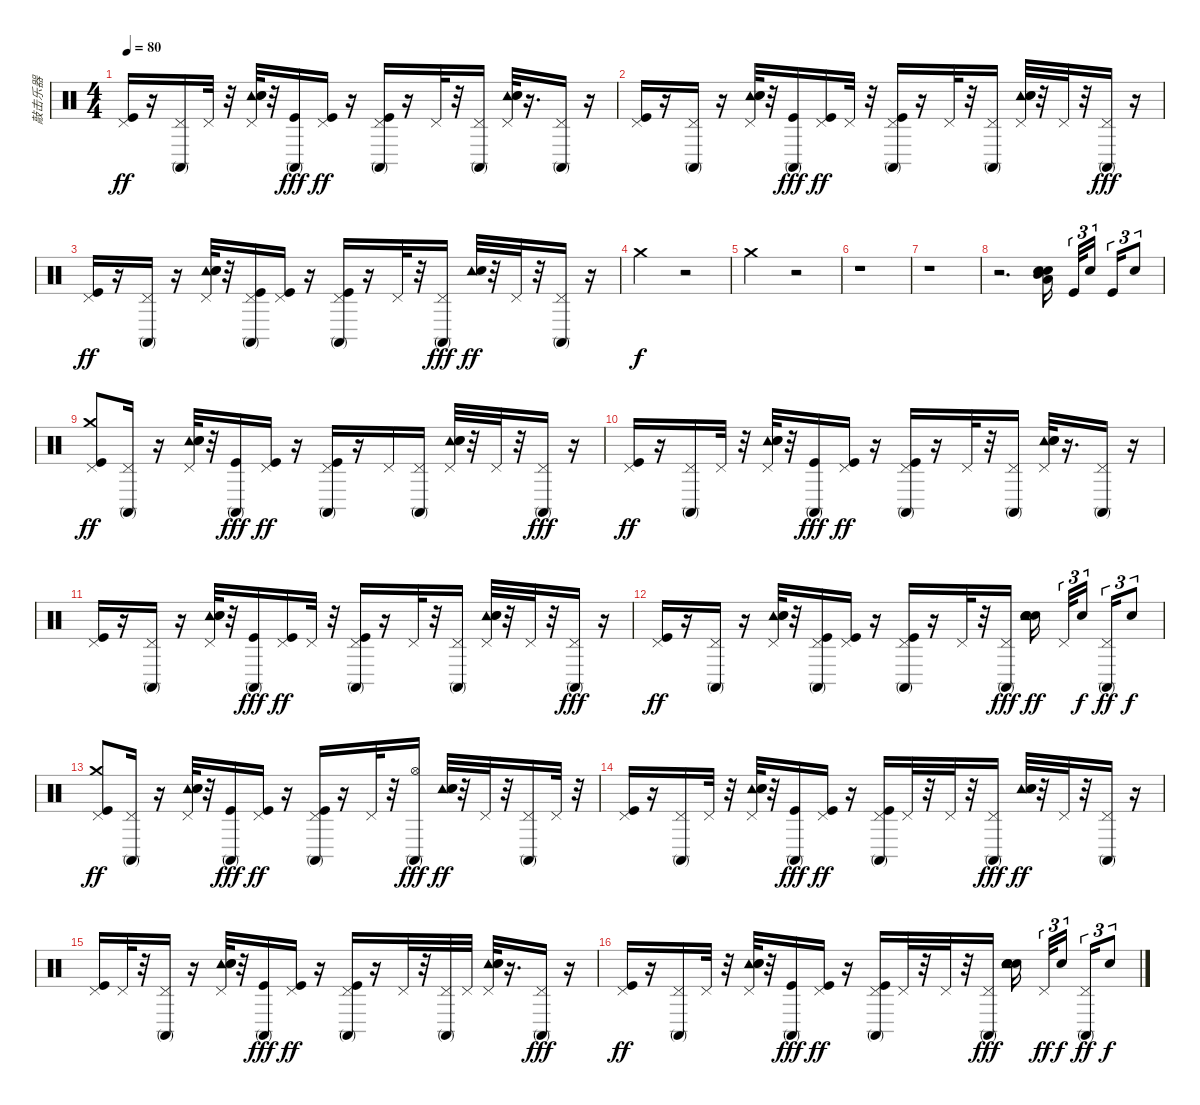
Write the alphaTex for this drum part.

\track ("敲击乐器" "敲击乐器") {instrument percussion}
\staff {score}
\articulation defaults
\ts (4 4)
\tempo 80
\clef neutral
\ks c
("Kick (hit)" "Pedal Hi-Hat (hit)").16{dy ff} r.16 ("Conga high (mute)" "Pedal Hi-Hat (hit)").16 "Pedal Hi-Hat (hit)".32 r.32 ("Pedal Hi-Hat (hit)" "Tambourine (hit)" "Hand Clap (hit)" "Electric Snare (hit)").32 r.32 ("Conga high (mute)" "Kick (hit)").16{dy fff} ("Kick (hit)" "Pedal Hi-Hat (hit)").16{dy ff} r.16 ("Conga high (mute)" "Kick (hit)" "Pedal Hi-Hat (hit)").16 r.16 "Pedal Hi-Hat (hit)".32 r.32 ("Conga high (mute)" "Pedal Hi-Hat (hit)").16 ("Pedal Hi-Hat (hit)" "Tambourine (hit)" "Hand Clap (hit)" "Electric Snare (hit)").32 r.16{d} ("Conga high (mute)" "Pedal Hi-Hat (hit)").16 r.16 |
("Kick (hit)" "Pedal Hi-Hat (hit)").16 r.16 ("Conga high (mute)" "Pedal Hi-Hat (hit)").16 r.16 ("Pedal Hi-Hat (hit)" "Tambourine (hit)" "Hand Clap (hit)" "Electric Snare (hit)").32 r.32 ("Conga high (mute)" "Kick (hit)").16{dy fff} ("Kick (hit)" "Pedal Hi-Hat (hit)").16{dy ff} "Pedal Hi-Hat (hit)".32 r.32 ("Conga high (mute)" "Kick (hit)" "Pedal Hi-Hat (hit)").16 r.16 "Pedal Hi-Hat (hit)".32 r.32 ("Conga high (mute)" "Pedal Hi-Hat (hit)").16 ("Pedal Hi-Hat (hit)" "Tambourine (hit)" "Hand Clap (hit)" "Electric Snare (hit)").32 r.32 "Pedal Hi-Hat (hit)".32 r.32 ("Conga high (mute)" "Pedal Hi-Hat (hit)").16{dy fff} r.16 |
("Kick (hit)" "Pedal Hi-Hat (hit)").16{dy ff} r.16 ("Conga high (mute)" "Pedal Hi-Hat (hit)").16 r.16 ("Pedal Hi-Hat (hit)" "Tambourine (hit)" "Hand Clap (hit)" "Electric Snare (hit)").32 r.32 ("Conga high (mute)" "Kick (hit)" "Pedal Hi-Hat (hit)").16 ("Kick (hit)" "Pedal Hi-Hat (hit)").16 r.16 ("Conga high (mute)" "Kick (hit)" "Pedal Hi-Hat (hit)").16 r.16 "Pedal Hi-Hat (hit)".32 r.32 ("Conga high (mute)" "Pedal Hi-Hat (hit)").16{dy fff} ("Tambourine (hit)" "Electric Snare (hit)").32{dy ff} r.32 "Pedal Hi-Hat (hit)".32 r.32 ("Conga high (mute)" "Pedal Hi-Hat (hit)").16 r.16 |
"Crash medium (hit)".2{dy f} r.2 |
"Crash medium (hit)".2 r.2 |
r.1 |
r.1 |
r.2{d} ("Electric Snare (hit)" "Mid Tom (hit)" "Low Tom (hit)" "Hand Clap (hit)").16{beam splitsecondary} "Kick (hit)".32{tu (3 2)} "Hand Clap (hit)".16{tu (3 2) beam splitsecondary} "Kick (hit)".16{tu (3 2)} "Hand Clap (hit)".8{tu (3 2)} |
("Kick (hit)" "Crash medium (hit)" "Pedal Hi-Hat (hit)").8{dy ff} ("Conga high (mute)" "Pedal Hi-Hat (hit)").16 r.16 ("Pedal Hi-Hat (hit)" "Tambourine (hit)" "Hand Clap (hit)" "Electric Snare (hit)").32 r.32 ("Conga high (mute)" "Kick (hit)").16{dy fff} ("Kick (hit)" "Pedal Hi-Hat (hit)").16{dy ff} r.16 ("Conga high (mute)" "Kick (hit)" "Pedal Hi-Hat (hit)").16 r.16 "Pedal Hi-Hat (hit)".16 ("Conga high (mute)" "Pedal Hi-Hat (hit)").16 ("Pedal Hi-Hat (hit)" "Tambourine (hit)" "Hand Clap (hit)" "Electric Snare (hit)").32 r.32 "Pedal Hi-Hat (hit)".32 r.32 ("Conga high (mute)" "Pedal Hi-Hat (hit)").16{dy fff} r.16 |
("Kick (hit)" "Pedal Hi-Hat (hit)").16{dy ff} r.16 ("Conga high (mute)" "Pedal Hi-Hat (hit)").16 "Pedal Hi-Hat (hit)".32 r.32 ("Pedal Hi-Hat (hit)" "Tambourine (hit)" "Hand Clap (hit)" "Electric Snare (hit)").32 r.32 ("Conga high (mute)" "Kick (hit)").16{dy fff} ("Kick (hit)" "Pedal Hi-Hat (hit)").16{dy ff} r.16 ("Conga high (mute)" "Kick (hit)" "Pedal Hi-Hat (hit)").16 r.16 "Pedal Hi-Hat (hit)".32 r.32 ("Conga high (mute)" "Pedal Hi-Hat (hit)").16 ("Pedal Hi-Hat (hit)" "Tambourine (hit)" "Hand Clap (hit)" "Electric Snare (hit)").32 r.16{d} ("Conga high (mute)" "Pedal Hi-Hat (hit)").16 r.16 |
("Kick (hit)" "Pedal Hi-Hat (hit)").16 r.16 ("Conga high (mute)" "Pedal Hi-Hat (hit)").16 r.16 ("Pedal Hi-Hat (hit)" "Tambourine (hit)" "Hand Clap (hit)" "Electric Snare (hit)").32 r.32 ("Conga high (mute)" "Kick (hit)").16{dy fff} ("Kick (hit)" "Pedal Hi-Hat (hit)").16{dy ff} "Pedal Hi-Hat (hit)".32 r.32 ("Conga high (mute)" "Kick (hit)" "Pedal Hi-Hat (hit)").16 r.16 "Pedal Hi-Hat (hit)".32 r.32 ("Conga high (mute)" "Pedal Hi-Hat (hit)").16 ("Pedal Hi-Hat (hit)" "Tambourine (hit)" "Hand Clap (hit)" "Electric Snare (hit)").32 r.32 "Pedal Hi-Hat (hit)".32 r.32 ("Conga high (mute)" "Pedal Hi-Hat (hit)").16{dy fff} r.16 |
("Kick (hit)" "Pedal Hi-Hat (hit)").16{dy ff} r.16 ("Conga high (mute)" "Pedal Hi-Hat (hit)").16 r.16 ("Pedal Hi-Hat (hit)" "Tambourine (hit)" "Hand Clap (hit)" "Electric Snare (hit)").32 r.32 ("Conga high (mute)" "Kick (hit)" "Pedal Hi-Hat (hit)").16 ("Kick (hit)" "Pedal Hi-Hat (hit)").16 r.16 ("Conga high (mute)" "Kick (hit)" "Pedal Hi-Hat (hit)").16 r.16 "Pedal Hi-Hat (hit)".32 r.32 ("Conga high (mute)" "Pedal Hi-Hat (hit)").16{dy fff} ("Hand Clap (hit)" "Tambourine (hit)" "Hand Clap (hit)" "Electric Snare (hit)").16{dy ff beam splitsecondary} "Pedal Hi-Hat (hit)".32{tu (3 2)} "Hand Clap (hit)".16{tu (3 2) dy f beam splitsecondary} ("Conga high (mute)" "Pedal Hi-Hat (hit)").16{tu (3 2) dy ff} "Hand Clap (hit)".8{tu (3 2) dy f} |
("Kick (hit)" "Crash medium (hit)" "Pedal Hi-Hat (hit)").8{dy ff} ("Conga high (mute)" "Pedal Hi-Hat (hit)").16 r.16 ("Pedal Hi-Hat (hit)" "Tambourine (hit)" "Hand Clap (hit)" "Electric Snare (hit)").32 r.32 ("Conga high (mute)" "Kick (hit)").16{dy fff} ("Kick (hit)" "Pedal Hi-Hat (hit)").16{dy ff} r.16 ("Conga high (mute)" "Kick (hit)" "Pedal Hi-Hat (hit)").16 r.16 "Pedal Hi-Hat (hit)".32 r.32 ("Conga high (mute)" "Hi-Hat (open)").16{dy fff} ("Tambourine (hit)" "Hand Clap (hit)" "Electric Snare (hit)").32{dy ff} r.32 "Pedal Hi-Hat (hit)".32 r.32 ("Conga high (mute)" "Pedal Hi-Hat (hit)").16 "Pedal Hi-Hat (hit)".32 r.32 |
("Kick (hit)" "Pedal Hi-Hat (hit)").16 r.16 ("Conga high (mute)" "Pedal Hi-Hat (hit)").16 "Pedal Hi-Hat (hit)".32 r.32 ("Pedal Hi-Hat (hit)" "Tambourine (hit)" "Hand Clap (hit)" "Electric Snare (hit)").32 r.32 ("Conga high (mute)" "Kick (hit)").16{dy fff} ("Kick (hit)" "Pedal Hi-Hat (hit)").16{dy ff} r.16 ("Conga high (mute)" "Kick (hit)" "Pedal Hi-Hat (hit)").16 "Pedal Hi-Hat (hit)".32 r.32 "Pedal Hi-Hat (hit)".32 r.32 ("Conga high (mute)" "Pedal Hi-Hat (hit)").16{dy fff} ("Tambourine (hit)" "Hand Clap (hit)" "Electric Snare (hit)").32{dy ff} r.32 "Pedal Hi-Hat (hit)".32 r.32 ("Conga high (mute)" "Pedal Hi-Hat (hit)").16 r.16 |
("Kick (hit)" "Pedal Hi-Hat (hit)").16 "Pedal Hi-Hat (hit)".32 r.32 ("Conga high (mute)" "Pedal Hi-Hat (hit)").16 r.16 ("Pedal Hi-Hat (hit)" "Tambourine (hit)" "Hand Clap (hit)" "Electric Snare (hit)").32 r.32 ("Conga high (mute)" "Kick (hit)").16{dy fff} ("Kick (hit)" "Pedal Hi-Hat (hit)").16{dy ff} r.16 ("Conga high (mute)" "Kick (hit)" "Pedal Hi-Hat (hit)").16 r.16 "Pedal Hi-Hat (hit)".32 r.32 ("Conga high (mute)" "Pedal Hi-Hat (hit)").32 "Pedal Hi-Hat (hit)".32 ("Pedal Hi-Hat (hit)" "Tambourine (hit)" "Hand Clap (hit)" "Electric Snare (hit)").32 r.16{d} ("Conga high (mute)" "Pedal Hi-Hat (hit)").16{dy fff} r.16 |
("Kick (hit)" "Pedal Hi-Hat (hit)").16{dy ff} r.16 ("Conga high (mute)" "Pedal Hi-Hat (hit)").16 "Pedal Hi-Hat (hit)".32 r.32 ("Pedal Hi-Hat (hit)" "Tambourine (hit)" "Hand Clap (hit)" "Electric Snare (hit)").32 r.32 ("Conga high (mute)" "Kick (hit)").16{dy fff} ("Kick (hit)" "Pedal Hi-Hat (hit)").16{dy ff} r.16 ("Conga high (mute)" "Kick (hit)" "Pedal Hi-Hat (hit)").16 "Pedal Hi-Hat (hit)".32 r.32 "Pedal Hi-Hat (hit)".32 r.32 ("Conga high (mute)" "Pedal Hi-Hat (hit)").16{dy fff} ("Electric Snare (hit)" "Hand Clap (hit)" "Tambourine (hit)" "Hand Clap (hit)").16{beam splitsecondary} "Pedal Hi-Hat (hit)".32{tu (3 2) dy ff} "Hand Clap (hit)".16{tu (3 2) dy f beam splitsecondary} ("Conga high (mute)" "Pedal Hi-Hat (hit)").16{tu (3 2) dy ff} "Hand Clap (hit)".8{tu (3 2) dy f}
